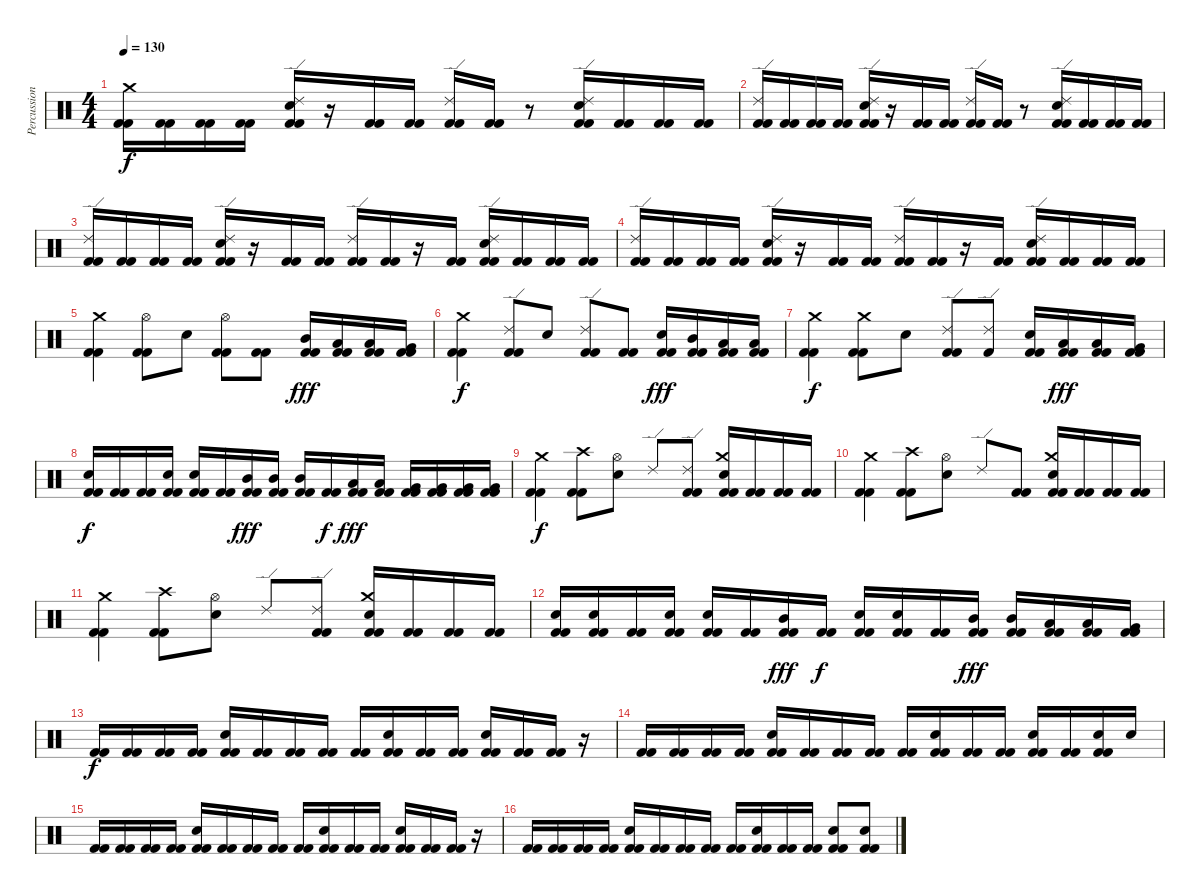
\track ("Percussion" "Percussion") {instrument percussion}
\staff {score}
\articulation defaults
\ts (4 4)
\tempo 130
\clef neutral
\ks c
("Kick (hit) 2" "Kick (hit) 2" "Crash medium (hit)").16{dy f} ("Kick (hit) 2" "Kick (hit) 2").16 ("Kick (hit) 2" "Kick (hit) 2").16 ("Kick (hit) 2" "Kick (hit) 2").16 ("Kick (hit) 2" "Kick (hit) 2" "Ride (edge) 2" "Electric Snare (hit)").16 r.16 ("Kick (hit) 2" "Kick (hit) 2").16 ("Kick (hit) 2" "Kick (hit) 2").16 ("Kick (hit) 2" "Kick (hit) 2" "Ride (edge) 2").16 ("Kick (hit) 2" "Kick (hit) 2").16 r.8 ("Kick (hit) 2" "Kick (hit) 2" "Ride (edge) 2" "Electric Snare (hit)").16 ("Kick (hit) 2" "Kick (hit) 2").16 ("Kick (hit) 2" "Kick (hit) 2").16 ("Kick (hit) 2" "Kick (hit) 2").16 |
("Kick (hit) 2" "Kick (hit) 2" "Ride (edge) 2").16 ("Kick (hit) 2" "Kick (hit) 2").16 ("Kick (hit) 2" "Kick (hit) 2").16 ("Kick (hit) 2" "Kick (hit) 2").16 ("Kick (hit) 2" "Kick (hit) 2" "Ride (edge) 2" "Electric Snare (hit)").16 r.16 ("Kick (hit) 2" "Kick (hit) 2").16 ("Kick (hit) 2" "Kick (hit) 2").16 ("Kick (hit) 2" "Kick (hit) 2" "Ride (edge) 2").16 ("Kick (hit) 2" "Kick (hit) 2").16 r.8 ("Kick (hit) 2" "Kick (hit) 2" "Ride (edge) 2" "Electric Snare (hit)").16 ("Kick (hit) 2" "Kick (hit) 2").16 ("Kick (hit) 2" "Kick (hit) 2").16 ("Kick (hit) 2" "Kick (hit) 2").16 |
("Kick (hit) 2" "Kick (hit) 2" "Ride (edge) 2").16 ("Kick (hit) 2" "Kick (hit) 2").16 ("Kick (hit) 2" "Kick (hit) 2").16 ("Kick (hit) 2" "Kick (hit) 2").16 ("Kick (hit) 2" "Kick (hit) 2" "Ride (edge) 2" "Electric Snare (hit)").16 r.16 ("Kick (hit) 2" "Kick (hit) 2").16 ("Kick (hit) 2" "Kick (hit) 2").16 ("Kick (hit) 2" "Kick (hit) 2" "Ride (edge) 2").16 ("Kick (hit) 2" "Kick (hit) 2").16 r.16 ("Kick (hit) 2" "Kick (hit) 2").16 ("Kick (hit) 2" "Kick (hit) 2" "Ride (edge) 2" "Electric Snare (hit)").16 ("Kick (hit) 2" "Kick (hit) 2").16 ("Kick (hit) 2" "Kick (hit) 2").16 ("Kick (hit) 2" "Kick (hit) 2").16 |
("Kick (hit) 2" "Kick (hit) 2" "Ride (edge) 2").16 ("Kick (hit) 2" "Kick (hit) 2").16 ("Kick (hit) 2" "Kick (hit) 2").16 ("Kick (hit) 2" "Kick (hit) 2").16 ("Kick (hit) 2" "Kick (hit) 2" "Ride (edge) 2" "Electric Snare (hit)").16 r.16 ("Kick (hit) 2" "Kick (hit) 2").16 ("Kick (hit) 2" "Kick (hit) 2").16 ("Kick (hit) 2" "Kick (hit) 2" "Ride (edge) 2").16 ("Kick (hit) 2" "Kick (hit) 2").16 r.16 ("Kick (hit) 2" "Kick (hit) 2").16 ("Kick (hit) 2" "Kick (hit) 2" "Ride (edge) 2" "Electric Snare (hit)").16 ("Kick (hit) 2" "Kick (hit) 2").16 ("Kick (hit) 2" "Kick (hit) 2").16 ("Kick (hit) 2" "Kick (hit) 2").16 |
("Kick (hit) 2" "Kick (hit) 2" "Crash medium (hit)").4 ("Kick (hit) 2" "Kick (hit) 2" "Hi-Hat (open)").8 "Electric Snare (hit)".8 ("Kick (hit) 2" "Kick (hit) 2" "Hi-Hat (open)").8 ("Kick (hit) 2" "Kick (hit) 2").8 ("Mid Tom (hit)" "Kick (hit) 2" "Kick (hit) 2").16{dy fff} ("Low Tom (hit)" "Kick (hit) 2" "Kick (hit) 2").16 ("Low Tom (hit)" "Kick (hit) 2" "Kick (hit) 2").16 ("Very Low Tom (hit)" "Kick (hit) 2" "Kick (hit) 2").16 |
("Kick (hit) 2" "Kick (hit) 2" "Crash medium (hit)").4{dy f} ("Kick (hit) 2" "Kick (hit) 2" "Ride (edge) 2").8 "Electric Snare (hit)".8 ("Kick (hit) 2" "Kick (hit) 2" "Ride (edge) 2").8 ("Kick (hit) 2" "Kick (hit) 2").8 ("Electric Snare (hit)" "Kick (hit) 2" "Kick (hit) 2").16{dy fff} ("Mid Tom (hit)" "Kick (hit) 2" "Kick (hit) 2").16 ("Low Tom (hit)" "Kick (hit) 2" "Kick (hit) 2").16 ("Low Tom (hit)" "Kick (hit) 2" "Kick (hit) 2").16 |
("Kick (hit) 2" "Kick (hit) 2" "Crash medium (hit)").4{dy f} ("Kick (hit) 2" "Kick (hit) 2" "Crash medium (hit)").8 "Electric Snare (hit)".8 ("Kick (hit) 2" "Kick (hit) 2" "Ride (edge) 2").8 ("Kick (hit) 2" "Ride (edge) 2").8 ("Electric Snare (hit)" "Kick (hit) 2" "Kick (hit) 2").16 ("Low Tom (hit)" "Kick (hit) 2" "Kick (hit) 2").16{dy fff} ("Low Tom (hit)" "Kick (hit) 2" "Kick (hit) 2").16 ("Very Low Tom (hit)" "Kick (hit) 2" "Kick (hit) 2").16 |
("Kick (hit) 2" "Kick (hit) 2" "Electric Snare (hit)").16{dy f} ("Kick (hit) 2" "Kick (hit) 2").16 ("Kick (hit) 2" "Kick (hit) 2").16 ("Kick (hit) 2" "Kick (hit) 2" "Electric Snare (hit)").16 ("Kick (hit) 2" "Kick (hit) 2" "Electric Snare (hit)").16 ("Kick (hit) 2" "Kick (hit) 2").16 ("Kick (hit) 2" "Kick (hit) 2" "Mid Tom (hit)").16{dy fff} ("Kick (hit) 2" "Kick (hit) 2" "Mid Tom (hit)").16 ("Kick (hit) 2" "Kick (hit) 2" "Mid Tom (hit)").16 ("Kick (hit) 2" "Kick (hit) 2").16{dy f} ("Kick (hit) 2" "Kick (hit) 2" "Low Tom (hit)").16{dy fff} ("Kick (hit) 2" "Kick (hit) 2" "Low Tom (hit)").16 ("Kick (hit) 2" "Kick (hit) 2" "Very Low Tom (hit)").16 ("Kick (hit) 2" "Kick (hit) 2" "Very Low Tom (hit)").16 ("Kick (hit) 2" "Kick (hit) 2" "Very Low Tom (hit)").16 ("Kick (hit) 2" "Kick (hit) 2" "Very Low Tom (hit)").16 |
("Kick (hit) 2" "Kick (hit) 2" "Crash medium (hit)").4{dy f} ("Kick (hit) 2" "Kick (hit) 2" "Crash high (hit)").8 ("Hi-Hat (open)" "Electric Snare (hit)").8 "Ride (edge) 2".8 ("Kick (hit) 2" "Kick (hit) 2" "Ride (edge) 2").8 ("Kick (hit) 2" "Kick (hit) 2" "Electric Snare (hit)" "Crash medium (hit)").16 ("Kick (hit) 2" "Kick (hit) 2").16 ("Kick (hit) 2" "Kick (hit) 2").16 ("Kick (hit) 2" "Kick (hit) 2").16 |
("Kick (hit) 2" "Kick (hit) 2" "Crash medium (hit)").4 ("Kick (hit) 2" "Kick (hit) 2" "Crash high (hit)").8 ("Hi-Hat (open)" "Electric Snare (hit)").8 "Ride (edge) 2".8 ("Kick (hit) 2" "Kick (hit) 2").8 ("Kick (hit) 2" "Kick (hit) 2" "Electric Snare (hit)" "Crash medium (hit)").16 ("Kick (hit) 2" "Kick (hit) 2").16 ("Kick (hit) 2" "Kick (hit) 2").16 ("Kick (hit) 2" "Kick (hit) 2").16 |
("Kick (hit) 2" "Kick (hit) 2" "Crash medium (hit)").4 ("Kick (hit) 2" "Kick (hit) 2" "Crash high (hit)").8 ("Hi-Hat (open)" "Electric Snare (hit)").8 "Ride (edge) 2".8 ("Kick (hit) 2" "Kick (hit) 2" "Ride (edge) 2").8 ("Kick (hit) 2" "Kick (hit) 2" "Electric Snare (hit)" "Crash medium (hit)").16 ("Kick (hit) 2" "Kick (hit) 2").16 ("Kick (hit) 2" "Kick (hit) 2").16 ("Kick (hit) 2" "Kick (hit) 2").16 |
("Kick (hit) 2" "Kick (hit) 2" "Electric Snare (hit)").16 ("Kick (hit) 2" "Kick (hit) 2" "Electric Snare (hit)").16 ("Kick (hit) 2" "Kick (hit) 2").16 ("Kick (hit) 2" "Kick (hit) 2" "Electric Snare (hit)").16 ("Kick (hit) 2" "Kick (hit) 2" "Electric Snare (hit)").16 ("Kick (hit) 2" "Kick (hit) 2").16 ("Kick (hit) 2" "Kick (hit) 2" "Mid Tom (hit)").16{dy fff} ("Kick (hit) 2" "Kick (hit) 2").16{dy f} ("Kick (hit) 2" "Kick (hit) 2" "Electric Snare (hit)").16 ("Kick (hit) 2" "Kick (hit) 2" "Electric Snare (hit)").16 ("Kick (hit) 2" "Kick (hit) 2").16 ("Kick (hit) 2" "Kick (hit) 2" "Mid Tom (hit)").16{dy fff} ("Kick (hit) 2" "Kick (hit) 2" "Mid Tom (hit)").16 ("Kick (hit) 2" "Kick (hit) 2" "Low Tom (hit)").16 ("Kick (hit) 2" "Kick (hit) 2" "Low Tom (hit)").16 ("Kick (hit) 2" "Kick (hit) 2" "Very Low Tom (hit)").16 |
("Kick (hit) 2" "Kick (hit) 2").16{dy f} ("Kick (hit) 2" "Kick (hit) 2").16 ("Kick (hit) 2" "Kick (hit) 2").16 ("Kick (hit) 2" "Kick (hit) 2").16 ("Kick (hit) 2" "Kick (hit) 2" "Electric Snare (hit)").16 ("Kick (hit) 2" "Kick (hit) 2").16 ("Kick (hit) 2" "Kick (hit) 2").16 ("Kick (hit) 2" "Kick (hit) 2").16 ("Kick (hit) 2" "Kick (hit) 2").16 ("Kick (hit) 2" "Kick (hit) 2" "Electric Snare (hit)").16 ("Kick (hit) 2" "Kick (hit) 2").16 ("Kick (hit) 2" "Kick (hit) 2").16 ("Kick (hit) 2" "Kick (hit) 2" "Electric Snare (hit)").16 ("Kick (hit) 2" "Kick (hit) 2").16 ("Kick (hit) 2" "Kick (hit) 2").16 r.16 |
("Kick (hit) 2" "Kick (hit) 2").16 ("Kick (hit) 2" "Kick (hit) 2").16 ("Kick (hit) 2" "Kick (hit) 2").16 ("Kick (hit) 2" "Kick (hit) 2").16 ("Kick (hit) 2" "Kick (hit) 2" "Electric Snare (hit)").16 ("Kick (hit) 2" "Kick (hit) 2").16 ("Kick (hit) 2" "Kick (hit) 2").16 ("Kick (hit) 2" "Kick (hit) 2").16 ("Kick (hit) 2" "Kick (hit) 2").16 ("Kick (hit) 2" "Kick (hit) 2" "Electric Snare (hit)").16 ("Kick (hit) 2" "Kick (hit) 2").16 ("Kick (hit) 2" "Kick (hit) 2").16 ("Kick (hit) 2" "Kick (hit) 2" "Electric Snare (hit)").16 ("Kick (hit) 2" "Kick (hit) 2").16 ("Kick (hit) 2" "Kick (hit) 2" "Electric Snare (hit)").16 "Electric Snare (hit)".16 |
("Kick (hit) 2" "Kick (hit) 2").16 ("Kick (hit) 2" "Kick (hit) 2").16 ("Kick (hit) 2" "Kick (hit) 2").16 ("Kick (hit) 2" "Kick (hit) 2").16 ("Kick (hit) 2" "Kick (hit) 2" "Electric Snare (hit)").16 ("Kick (hit) 2" "Kick (hit) 2").16 ("Kick (hit) 2" "Kick (hit) 2").16 ("Kick (hit) 2" "Kick (hit) 2").16 ("Kick (hit) 2" "Kick (hit) 2").16 ("Kick (hit) 2" "Kick (hit) 2" "Electric Snare (hit)").16 ("Kick (hit) 2" "Kick (hit) 2").16 ("Kick (hit) 2" "Kick (hit) 2").16 ("Kick (hit) 2" "Kick (hit) 2" "Electric Snare (hit)").16 ("Kick (hit) 2" "Kick (hit) 2").16 ("Kick (hit) 2" "Kick (hit) 2").16 r.16 |
("Kick (hit) 2" "Kick (hit) 2").16 ("Kick (hit) 2" "Kick (hit) 2").16 ("Kick (hit) 2" "Kick (hit) 2").16 ("Kick (hit) 2" "Kick (hit) 2").16 ("Kick (hit) 2" "Kick (hit) 2" "Electric Snare (hit)").16 ("Kick (hit) 2" "Kick (hit) 2").16 ("Kick (hit) 2" "Kick (hit) 2").16 ("Kick (hit) 2" "Kick (hit) 2").16 ("Kick (hit) 2" "Kick (hit) 2").16 ("Kick (hit) 2" "Kick (hit) 2" "Electric Snare (hit)").16 ("Kick (hit) 2" "Kick (hit) 2").16 ("Kick (hit) 2" "Kick (hit) 2").16 ("Kick (hit) 2" "Kick (hit) 2" "Electric Snare (hit)").8 ("Kick (hit) 2" "Kick (hit) 2" "Electric Snare (hit)").8
